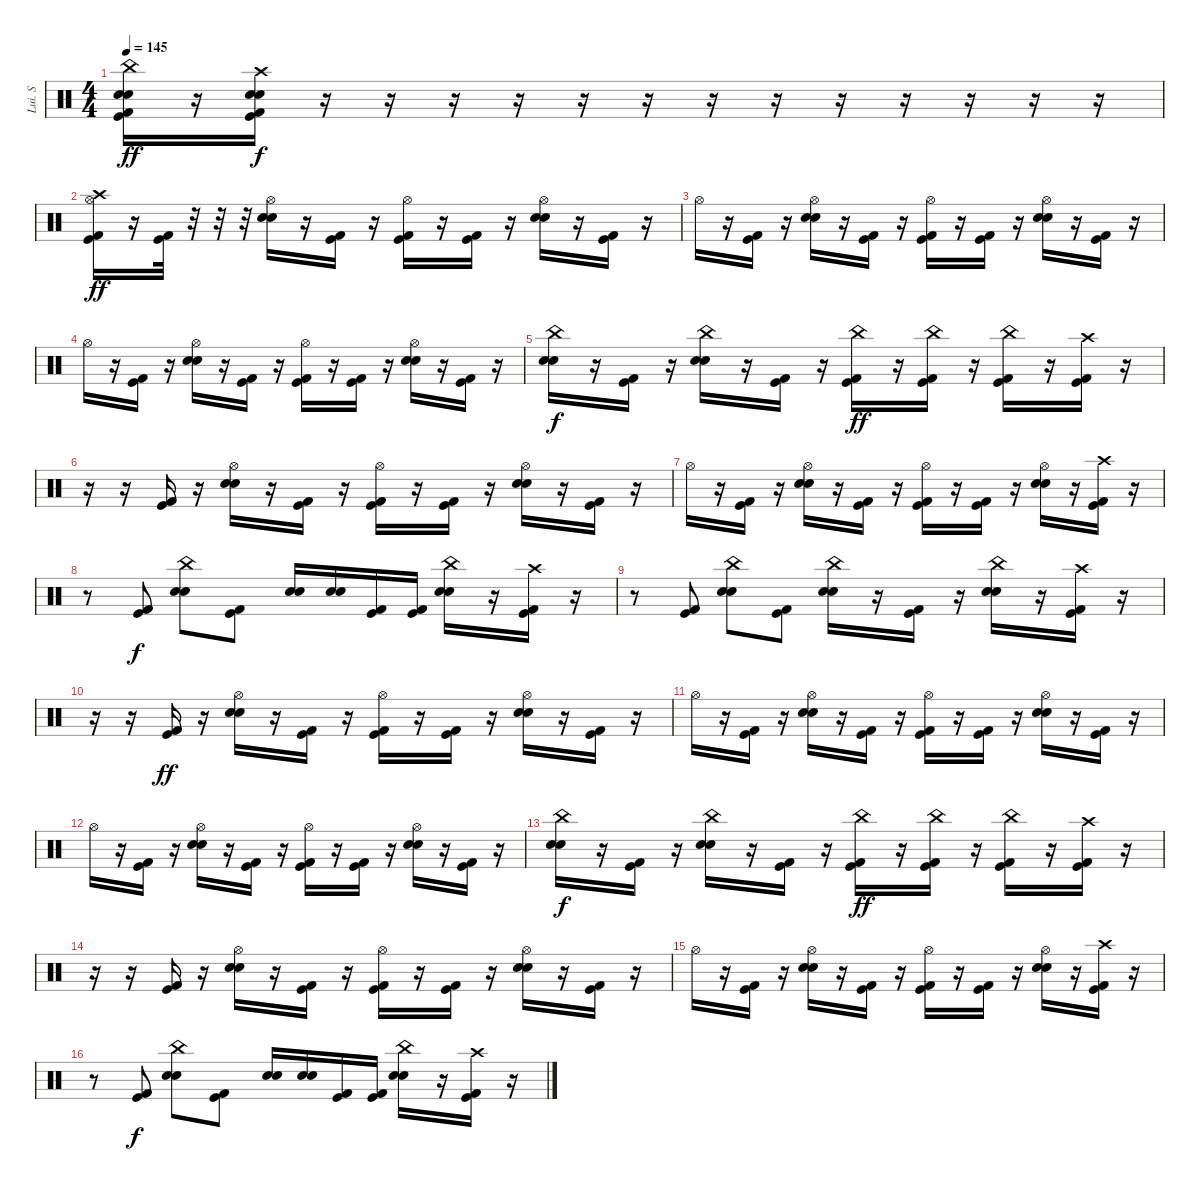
\track ("Lui. S" "Lui. S") {instrument percussion}
\staff {score}
\articulation defaults
\ts (4 4)
\tempo 145
\clef neutral
\ks c
("China (hit)" "Electric Snare (hit)" "Snare (hit) 2" "Kick (hit)" "Kick (hit) 2").16{dy ff} r.16 ("Crash high (hit)" "Electric Snare (hit)" "Snare (hit) 2" "Kick (hit)" "Kick (hit) 2").16{dy f} r.16 r.16 r.16 r.16 r.16 r.16 r.16 r.16 r.16 r.16 r.16 r.16 r.16 |
("Crash high (hit)" "Hi-Hat (open)" "Kick (hit)" "Kick (hit) 2").16{dy ff} r.16 ("Kick (hit) 2" "Kick (hit)").32 r.32 r.32 r.32 ("Hi-Hat (open)" "Snare (hit) 2" "Electric Snare (hit)").16 r.16 ("Kick (hit)" "Kick (hit) 2").16 r.16 ("Hi-Hat (open)" "Kick (hit)" "Kick (hit) 2").16 r.16 ("Kick (hit)" "Kick (hit) 2").16 r.16 ("Hi-Hat (open)" "Snare (hit) 2" "Electric Snare (hit)").16 r.16 ("Kick (hit)" "Kick (hit) 2").16 r.16 |
"Hi-Hat (open)".16 r.16 ("Kick (hit) 2" "Kick (hit)").16 r.16 ("Hi-Hat (open)" "Snare (hit) 2" "Electric Snare (hit)").16 r.16 ("Kick (hit)" "Kick (hit) 2").16 r.16 ("Hi-Hat (open)" "Kick (hit)" "Kick (hit) 2").16 r.16 ("Kick (hit)" "Kick (hit) 2").16 r.16 ("Hi-Hat (open)" "Snare (hit) 2" "Electric Snare (hit)").16 r.16 ("Kick (hit)" "Kick (hit) 2").16 r.16 |
"Hi-Hat (open)".16 r.16 ("Kick (hit)" "Kick (hit) 2").16 r.16 ("Hi-Hat (open)" "Snare (hit) 2" "Electric Snare (hit)").16 r.16 ("Kick (hit)" "Kick (hit) 2").16 r.16 ("Hi-Hat (open)" "Kick (hit)" "Kick (hit) 2").16 r.16 ("Kick (hit)" "Kick (hit) 2").16 r.16 ("Hi-Hat (open)" "Snare (hit) 2" "Electric Snare (hit)").16 r.16 ("Kick (hit)" "Kick (hit) 2").16 r.16 |
("China (hit)" "Snare (hit) 2" "Electric Snare (hit)").16{dy f} r.16 ("Kick (hit)" "Kick (hit) 2").16 r.16 ("China (hit)" "Snare (hit) 2" "Electric Snare (hit)").16 r.16 ("Kick (hit)" "Kick (hit) 2").16 r.16 ("China (hit)" "Kick (hit)" "Kick (hit) 2").16{dy ff} r.16 ("China (hit)" "Kick (hit)" "Kick (hit) 2").16 r.16 ("China (hit)" "Kick (hit)" "Kick (hit) 2").16 r.16 ("Crash high (hit)" "Kick (hit)" "Kick (hit) 2").16 r.16 |
r.16 r.16 ("Kick (hit) 2" "Kick (hit)").16 r.16 ("Hi-Hat (open)" "Snare (hit) 2" "Electric Snare (hit)").16 r.16 ("Kick (hit)" "Kick (hit) 2").16 r.16 ("Hi-Hat (open)" "Kick (hit)" "Kick (hit) 2").16 r.16 ("Kick (hit)" "Kick (hit) 2").16 r.16 ("Hi-Hat (open)" "Snare (hit) 2" "Electric Snare (hit)").16 r.16 ("Kick (hit)" "Kick (hit) 2").16 r.16 |
"Hi-Hat (open)".16 r.16 ("Kick (hit)" "Kick (hit) 2").16 r.16 ("Hi-Hat (open)" "Snare (hit) 2" "Electric Snare (hit)").16 r.16 ("Kick (hit)" "Kick (hit) 2").16 r.16 ("Hi-Hat (open)" "Kick (hit)" "Kick (hit) 2").16 r.16 ("Kick (hit)" "Kick (hit) 2").16 r.16 ("Hi-Hat (open)" "Snare (hit) 2" "Electric Snare (hit)").16 r.16 ("Crash high (hit)" "Kick (hit)" "Kick (hit) 2").16 r.16 |
r.8 ("Kick (hit)" "Kick (hit) 2").8{dy f} ("China (hit)" "Electric Snare (hit)" "Snare (hit) 2").8 ("Kick (hit)" "Kick (hit) 2").8 ("Electric Snare (hit)" "Snare (hit) 2").16 ("Electric Snare (hit)" "Snare (hit) 2").16 ("Kick (hit)" "Kick (hit) 2").16 ("Kick (hit)" "Kick (hit) 2").16 ("China (hit)" "Electric Snare (hit)" "Snare (hit) 2").16 r.16 ("Crash high (hit)" "Kick (hit)" "Kick (hit) 2").16 r.16 |
r.8 ("Kick (hit)" "Kick (hit) 2").8 ("China (hit)" "Electric Snare (hit)" "Snare (hit) 2").8 ("Kick (hit)" "Kick (hit) 2").8 ("China (hit)" "Electric Snare (hit)" "Snare (hit) 2").16 r.16 ("Kick (hit)" "Kick (hit) 2").16 r.16 ("China (hit)" "Electric Snare (hit)" "Snare (hit) 2").16 r.16 ("Crash high (hit)" "Kick (hit)" "Kick (hit) 2").16 r.16 |
r.16 r.16 ("Kick (hit) 2" "Kick (hit)").16{dy ff} r.16 ("Hi-Hat (open)" "Snare (hit) 2" "Electric Snare (hit)").16 r.16 ("Kick (hit)" "Kick (hit) 2").16 r.16 ("Hi-Hat (open)" "Kick (hit)" "Kick (hit) 2").16 r.16 ("Kick (hit)" "Kick (hit) 2").16 r.16 ("Hi-Hat (open)" "Snare (hit) 2" "Electric Snare (hit)").16 r.16 ("Kick (hit)" "Kick (hit) 2").16 r.16 |
"Hi-Hat (open)".16 r.16 ("Kick (hit)" "Kick (hit) 2").16 r.16 ("Hi-Hat (open)" "Snare (hit) 2" "Electric Snare (hit)").16 r.16 ("Kick (hit)" "Kick (hit) 2").16 r.16 ("Hi-Hat (open)" "Kick (hit)" "Kick (hit) 2").16 r.16 ("Kick (hit)" "Kick (hit) 2").16 r.16 ("Hi-Hat (open)" "Snare (hit) 2" "Electric Snare (hit)").16 r.16 ("Kick (hit)" "Kick (hit) 2").16 r.16 |
"Hi-Hat (open)".16 r.16 ("Kick (hit)" "Kick (hit) 2").16 r.16 ("Hi-Hat (open)" "Snare (hit) 2" "Electric Snare (hit)").16 r.16 ("Kick (hit)" "Kick (hit) 2").16 r.16 ("Hi-Hat (open)" "Kick (hit)" "Kick (hit) 2").16 r.16 ("Kick (hit)" "Kick (hit) 2").16 r.16 ("Hi-Hat (open)" "Snare (hit) 2" "Electric Snare (hit)").16 r.16 ("Kick (hit)" "Kick (hit) 2").16 r.16 |
("China (hit)" "Snare (hit) 2" "Electric Snare (hit)").16{dy f} r.16 ("Kick (hit)" "Kick (hit) 2").16 r.16 ("China (hit)" "Snare (hit) 2" "Electric Snare (hit)").16 r.16 ("Kick (hit)" "Kick (hit) 2").16 r.16 ("China (hit)" "Kick (hit)" "Kick (hit) 2").16{dy ff} r.16 ("China (hit)" "Kick (hit)" "Kick (hit) 2").16 r.16 ("China (hit)" "Kick (hit)" "Kick (hit) 2").16 r.16 ("Crash high (hit)" "Kick (hit)" "Kick (hit) 2").16 r.16 |
r.16 r.16 ("Kick (hit) 2" "Kick (hit)").16 r.16 ("Hi-Hat (open)" "Snare (hit) 2" "Electric Snare (hit)").16 r.16 ("Kick (hit)" "Kick (hit) 2").16 r.16 ("Hi-Hat (open)" "Kick (hit)" "Kick (hit) 2").16 r.16 ("Kick (hit)" "Kick (hit) 2").16 r.16 ("Hi-Hat (open)" "Snare (hit) 2" "Electric Snare (hit)").16 r.16 ("Kick (hit)" "Kick (hit) 2").16 r.16 |
"Hi-Hat (open)".16 r.16 ("Kick (hit)" "Kick (hit) 2").16 r.16 ("Hi-Hat (open)" "Snare (hit) 2" "Electric Snare (hit)").16 r.16 ("Kick (hit)" "Kick (hit) 2").16 r.16 ("Hi-Hat (open)" "Kick (hit)" "Kick (hit) 2").16 r.16 ("Kick (hit)" "Kick (hit) 2").16 r.16 ("Hi-Hat (open)" "Snare (hit) 2" "Electric Snare (hit)").16 r.16 ("Crash high (hit)" "Kick (hit)" "Kick (hit) 2").16 r.16 |
r.8 ("Kick (hit)" "Kick (hit) 2").8{dy f} ("China (hit)" "Electric Snare (hit)" "Snare (hit) 2").8 ("Kick (hit)" "Kick (hit) 2").8 ("Electric Snare (hit)" "Snare (hit) 2").16 ("Electric Snare (hit)" "Snare (hit) 2").16 ("Kick (hit)" "Kick (hit) 2").16 ("Kick (hit)" "Kick (hit) 2").16 ("China (hit)" "Electric Snare (hit)" "Snare (hit) 2").16 r.16 ("Crash high (hit)" "Kick (hit)" "Kick (hit) 2").16 r.16
